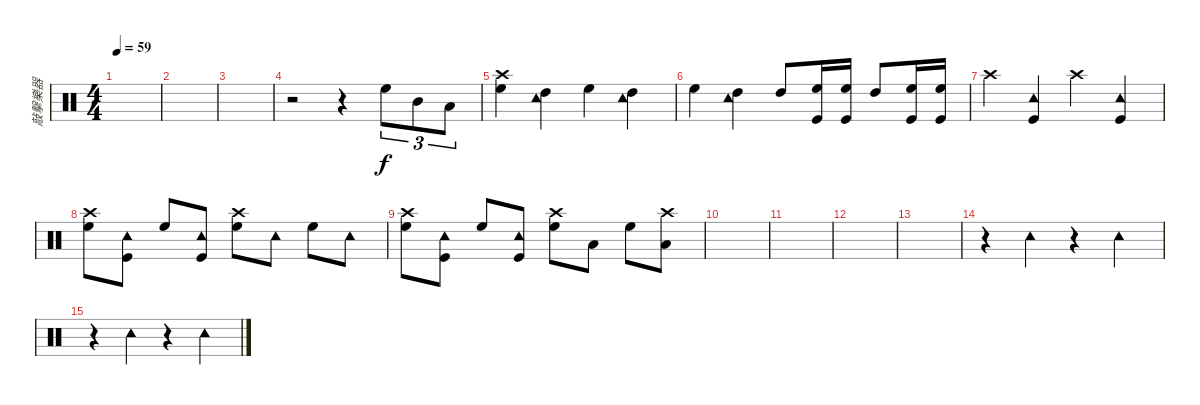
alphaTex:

\track ("敲擊樂器" "敲擊樂器") {instrument percussion}
\staff {score}
\articulation defaults
\ts (4 4)
\tempo 59
\clef neutral
\ks c
|
|
|
r.2 r.4 "High Floor Tom (hit)".8{tu (3 2)} "Mid Tom (hit)".8{tu (3 2)} "Low Tom (hit)".8{tu (3 2)} |
("High Floor Tom (hit)" "Crash high (hit)").4 ("High Tom (hit)" "Tambourine (hit)").4 "High Floor Tom (hit)".4 ("High Tom (hit)" "Tambourine (hit)").4 |
"High Floor Tom (hit)".4 ("High Tom (hit)" "Tambourine (hit)").4 "High Tom (hit)".8 ("High Floor Tom (hit)" "Kick (hit)").16 ("High Floor Tom (hit)" "Kick (hit)").16 "High Tom (hit)".8 ("High Floor Tom (hit)" "Kick (hit)").16 ("High Floor Tom (hit)" "Kick (hit)").16 |
"Crash high (hit)".4 ("Tambourine (hit)" "Kick (hit)").4 "Crash high (hit)".4 ("Tambourine (hit)" "Kick (hit)").4 |
("High Floor Tom (hit)" "Crash high (hit)").8 ("Tambourine (hit)" "Kick (hit)").8 "High Floor Tom (hit)".8 ("Tambourine (hit)" "Kick (hit)").8 ("High Floor Tom (hit)" "Crash high (hit)").8 "Tambourine (hit)".8 "High Floor Tom (hit)".8 "Tambourine (hit)".8 |
("High Floor Tom (hit)" "Crash high (hit)").8 ("Tambourine (hit)" "Kick (hit)").8 "High Floor Tom (hit)".8 ("Tambourine (hit)" "Kick (hit)").8 ("High Floor Tom (hit)" "Crash high (hit)").8 "Low Tom (hit)".8 "High Floor Tom (hit)".8 ("Low Tom (hit)" "Crash high (hit)").8 |
|
|
|
|
r.4 "Tambourine (hit)".4 r.4 "Tambourine (hit)".4 |
r.4 "Tambourine (hit)".4 r.4 "Tambourine (hit)".4
